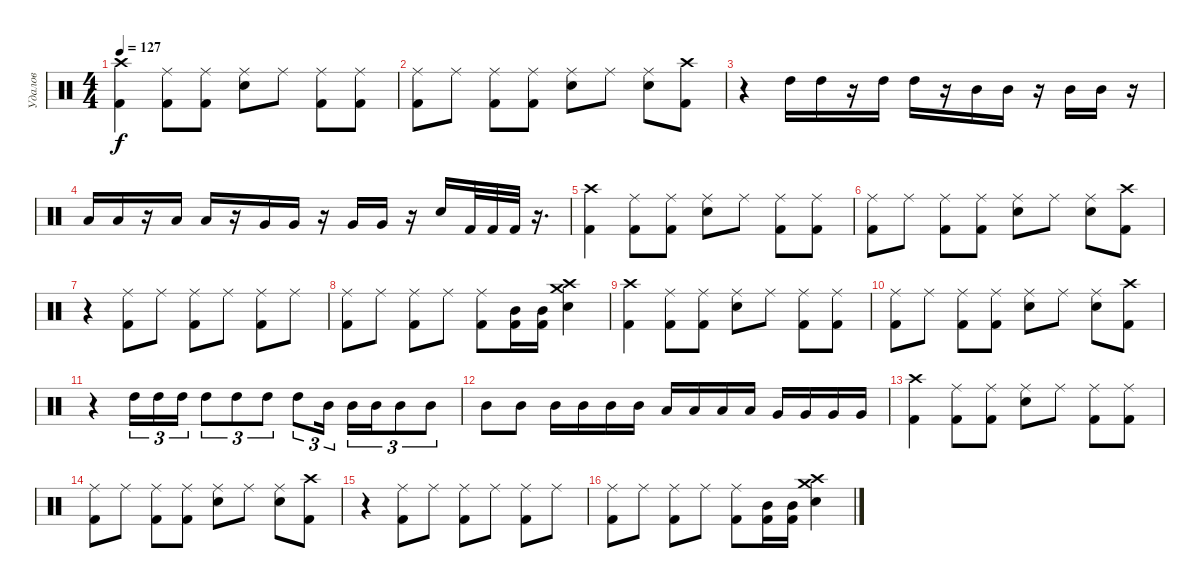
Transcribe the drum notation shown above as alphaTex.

\track ("Удалов" "Удалов") {instrument percussion}
\staff {score}
\articulation defaults
\ts (4 4)
\tempo 127
\clef neutral
\ks c
("Crash high (hit)" "Kick (hit) 2").4{dy f} ("Ride (middle)" "Kick (hit) 2").8 ("Ride (middle)" "Kick (hit) 2").8 ("Ride (middle)" "Snare (hit) 2").8 "Ride (middle)".8 ("Ride (middle)" "Kick (hit) 2").8 ("Ride (middle)" "Kick (hit) 2").8 |
("Ride (middle)" "Kick (hit) 2").8 "Ride (middle)".8 ("Ride (middle)" "Kick (hit) 2").8 ("Ride (middle)" "Kick (hit) 2").8 ("Ride (middle)" "Snare (hit) 2").8 "Ride (middle)".8 ("Ride (middle)" "Snare (hit) 2").8 ("Crash high (hit)" "Kick (hit) 2").8 |
r.4 "High Tom (hit)".16 "High Tom (hit)".16 r.16 "High Tom (hit)".16 "High Tom (hit)".16 r.16 "Mid Tom (hit)".16 "Mid Tom (hit)".16 r.16 "Mid Tom (hit)".16 "Mid Tom (hit)".16 r.16 |
"Low Tom (hit)".16 "Low Tom (hit)".16 r.16 "Low Tom (hit)".16 "Low Tom (hit)".16 r.16 "Very Low Tom (hit)".16 "Very Low Tom (hit)".16 r.16 "Very Low Tom (hit)".16 "Very Low Tom (hit)".16 r.16 "Snare (hit) 2".16 "Kick (hit) 2".32 "Kick (hit) 2".32 "Kick (hit) 2".32 r.16{d} |
("Crash high (hit)" "Kick (hit) 2").4 ("Ride (middle)" "Kick (hit) 2").8 ("Ride (middle)" "Kick (hit) 2").8 ("Ride (middle)" "Snare (hit) 2").8 "Ride (middle)".8 ("Ride (middle)" "Kick (hit) 2").8 ("Ride (middle)" "Kick (hit) 2").8 |
("Ride (middle)" "Kick (hit) 2").8 "Ride (middle)".8 ("Ride (middle)" "Kick (hit) 2").8 ("Ride (middle)" "Kick (hit) 2").8 ("Ride (middle)" "Snare (hit) 2").8 "Ride (middle)".8 ("Ride (middle)" "Snare (hit) 2").8 ("Crash high (hit)" "Kick (hit) 2").8 |
r.4 ("Ride (middle)" "Kick (hit) 2").8 "Ride (middle)".8 ("Ride (middle)" "Kick (hit) 2").8 "Ride (middle)".8 ("Ride (middle)" "Kick (hit) 2").8 "Ride (middle)".8 |
("Ride (middle)" "Kick (hit) 2").8 "Ride (middle)".8 ("Ride (middle)" "Kick (hit) 2").8 "Ride (middle)".8 ("Ride (middle)" "Kick (hit) 2").8 ("Mid Tom (hit)" "Kick (hit) 2").16 ("Mid Tom (hit)" "Kick (hit) 2").16 ("Crash medium (hit)" "Crash high (hit)" "Snare (hit) 2").4 |
("Crash high (hit)" "Kick (hit) 2").4 ("Ride (middle)" "Kick (hit) 2").8 ("Ride (middle)" "Kick (hit) 2").8 ("Ride (middle)" "Snare (hit) 2").8 "Ride (middle)".8 ("Ride (middle)" "Kick (hit) 2").8 ("Ride (middle)" "Kick (hit) 2").8 |
("Ride (middle)" "Kick (hit) 2").8 "Ride (middle)".8 ("Ride (middle)" "Kick (hit) 2").8 ("Ride (middle)" "Kick (hit) 2").8 ("Ride (middle)" "Snare (hit) 2").8 "Ride (middle)".8 ("Ride (middle)" "Snare (hit) 2").8 ("Crash high (hit)" "Kick (hit) 2").8 |
r.4 "High Tom (hit)".16{tu (3 2)} "High Tom (hit)".16{tu (3 2)} "High Tom (hit)".16{tu (3 2)} "High Tom (hit)".8{tu (3 2)} "High Tom (hit)".8{tu (3 2)} "High Tom (hit)".8{tu (3 2)} "High Tom (hit)".8{tu (3 2)} "Mid Tom (hit)".16{tu (3 2)} "Mid Tom (hit)".16{tu (3 2)} "Mid Tom (hit)".16{tu (3 2)} "Mid Tom (hit)".8{tu (3 2)} "Mid Tom (hit)".8{tu (3 2)} |
"Mid Tom (hit)".8 "Mid Tom (hit)".8 "Mid Tom (hit)".16 "Mid Tom (hit)".16 "Mid Tom (hit)".16 "Mid Tom (hit)".16 "Low Tom (hit)".16 "Low Tom (hit)".16 "Low Tom (hit)".16 "Low Tom (hit)".16 "Very Low Tom (hit)".16 "Very Low Tom (hit)".16 "Very Low Tom (hit)".16 "Very Low Tom (hit)".16 |
("Crash high (hit)" "Kick (hit) 2").4 ("Ride (middle)" "Kick (hit) 2").8 ("Ride (middle)" "Kick (hit) 2").8 ("Ride (middle)" "Snare (hit) 2").8 "Ride (middle)".8 ("Ride (middle)" "Kick (hit) 2").8 ("Ride (middle)" "Kick (hit) 2").8 |
("Ride (middle)" "Kick (hit) 2").8 "Ride (middle)".8 ("Ride (middle)" "Kick (hit) 2").8 ("Ride (middle)" "Kick (hit) 2").8 ("Ride (middle)" "Snare (hit) 2").8 "Ride (middle)".8 ("Ride (middle)" "Snare (hit) 2").8 ("Crash high (hit)" "Kick (hit) 2").8 |
r.4 ("Ride (middle)" "Kick (hit) 2").8 "Ride (middle)".8 ("Ride (middle)" "Kick (hit) 2").8 "Ride (middle)".8 ("Ride (middle)" "Kick (hit) 2").8 "Ride (middle)".8 |
("Ride (middle)" "Kick (hit) 2").8 "Ride (middle)".8 ("Ride (middle)" "Kick (hit) 2").8 "Ride (middle)".8 ("Ride (middle)" "Kick (hit) 2").8 ("Mid Tom (hit)" "Kick (hit) 2").16 ("Mid Tom (hit)" "Kick (hit) 2").16 ("Crash medium (hit)" "Crash high (hit)" "Snare (hit) 2").4
